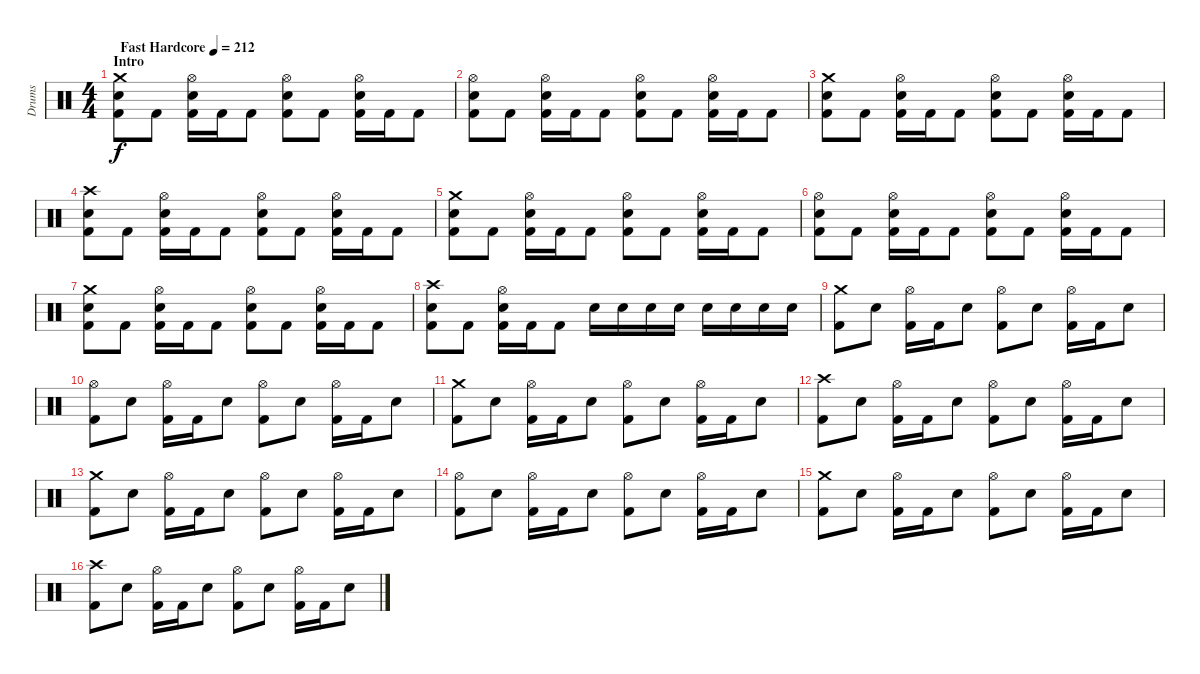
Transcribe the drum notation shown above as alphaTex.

\track ("Drums" "Drums") {instrument percussion}
\staff {score}
\articulation defaults
\ts (4 4)
\section ("" "Intro")
\tempo (212 "Fast Hardcore")
\clef neutral
\ks c
("Crash medium (hit)" "Electric Snare (hit)" "Kick (hit) 2").8{dy f} "Kick (hit) 2".8 ("Hi-Hat (open)" "Electric Snare (hit)" "Kick (hit) 2").16 "Kick (hit) 2".16 "Kick (hit) 2".8 ("Hi-Hat (open)" "Electric Snare (hit)" "Kick (hit) 2").8 "Kick (hit) 2".8 ("Hi-Hat (open)" "Electric Snare (hit)" "Kick (hit) 2").16 "Kick (hit) 2".16 "Kick (hit) 2".8 |
("Hi-Hat (open)" "Electric Snare (hit)" "Kick (hit) 2").8 "Kick (hit) 2".8 ("Hi-Hat (open)" "Electric Snare (hit)" "Kick (hit) 2").16 "Kick (hit) 2".16 "Kick (hit) 2".8 ("Hi-Hat (open)" "Electric Snare (hit)" "Kick (hit) 2").8 "Kick (hit) 2".8 ("Hi-Hat (open)" "Electric Snare (hit)" "Kick (hit) 2").16 "Kick (hit) 2".16 "Kick (hit) 2".8 |
("Crash medium (hit)" "Electric Snare (hit)" "Kick (hit) 2").8 "Kick (hit) 2".8 ("Hi-Hat (open)" "Electric Snare (hit)" "Kick (hit) 2").16 "Kick (hit) 2".16 "Kick (hit) 2".8 ("Hi-Hat (open)" "Electric Snare (hit)" "Kick (hit) 2").8 "Kick (hit) 2".8 ("Hi-Hat (open)" "Electric Snare (hit)" "Kick (hit) 2").16 "Kick (hit) 2".16 "Kick (hit) 2".8 |
("Crash high (hit)" "Electric Snare (hit)" "Kick (hit) 2").8 "Kick (hit) 2".8 ("Hi-Hat (open)" "Electric Snare (hit)" "Kick (hit) 2").16 "Kick (hit) 2".16 "Kick (hit) 2".8 ("Hi-Hat (open)" "Electric Snare (hit)" "Kick (hit) 2").8 "Kick (hit) 2".8 ("Hi-Hat (open)" "Electric Snare (hit)" "Kick (hit) 2").16 "Kick (hit) 2".16 "Kick (hit) 2".8 |
("Crash medium (hit)" "Electric Snare (hit)" "Kick (hit) 2").8 "Kick (hit) 2".8 ("Hi-Hat (open)" "Electric Snare (hit)" "Kick (hit) 2").16 "Kick (hit) 2".16 "Kick (hit) 2".8 ("Hi-Hat (open)" "Electric Snare (hit)" "Kick (hit) 2").8 "Kick (hit) 2".8 ("Hi-Hat (open)" "Electric Snare (hit)" "Kick (hit) 2").16 "Kick (hit) 2".16 "Kick (hit) 2".8 |
("Hi-Hat (open)" "Electric Snare (hit)" "Kick (hit) 2").8 "Kick (hit) 2".8 ("Hi-Hat (open)" "Electric Snare (hit)" "Kick (hit) 2").16 "Kick (hit) 2".16 "Kick (hit) 2".8 ("Hi-Hat (open)" "Electric Snare (hit)" "Kick (hit) 2").8 "Kick (hit) 2".8 ("Hi-Hat (open)" "Electric Snare (hit)" "Kick (hit) 2").16 "Kick (hit) 2".16 "Kick (hit) 2".8 |
("Crash medium (hit)" "Electric Snare (hit)" "Kick (hit) 2").8 "Kick (hit) 2".8 ("Hi-Hat (open)" "Electric Snare (hit)" "Kick (hit) 2").16 "Kick (hit) 2".16 "Kick (hit) 2".8 ("Hi-Hat (open)" "Electric Snare (hit)" "Kick (hit) 2").8 "Kick (hit) 2".8 ("Hi-Hat (open)" "Electric Snare (hit)" "Kick (hit) 2").16 "Kick (hit) 2".16 "Kick (hit) 2".8 |
("Crash high (hit)" "Electric Snare (hit)" "Kick (hit) 2").8 "Kick (hit) 2".8 ("Hi-Hat (open)" "Electric Snare (hit)" "Kick (hit) 2").16 "Kick (hit) 2".16 "Kick (hit) 2".8 "Electric Snare (hit)".16 "Electric Snare (hit)".16 "Electric Snare (hit)".16 "Electric Snare (hit)".16 "Electric Snare (hit)".16 "Electric Snare (hit)".16 "Electric Snare (hit)".16 "Electric Snare (hit)".16 |
("Crash medium (hit)" "Kick (hit) 2").8 "Electric Snare (hit)".8 ("Hi-Hat (open)" "Kick (hit) 2").16 "Kick (hit) 2".16 "Electric Snare (hit)".8 ("Hi-Hat (open)" "Kick (hit) 2").8 "Electric Snare (hit)".8 ("Hi-Hat (open)" "Kick (hit) 2").16 "Kick (hit) 2".16 "Electric Snare (hit)".8 |
("Hi-Hat (open)" "Kick (hit) 2").8 "Electric Snare (hit)".8 ("Hi-Hat (open)" "Kick (hit) 2").16 "Kick (hit) 2".16 "Electric Snare (hit)".8 ("Hi-Hat (open)" "Kick (hit) 2").8 "Electric Snare (hit)".8 ("Hi-Hat (open)" "Kick (hit) 2").16 "Kick (hit) 2".16 "Electric Snare (hit)".8 |
("Crash medium (hit)" "Kick (hit) 2").8 "Electric Snare (hit)".8 ("Hi-Hat (open)" "Kick (hit) 2").16 "Kick (hit) 2".16 "Electric Snare (hit)".8 ("Hi-Hat (open)" "Kick (hit) 2").8 "Electric Snare (hit)".8 ("Hi-Hat (open)" "Kick (hit) 2").16 "Kick (hit) 2".16 "Electric Snare (hit)".8 |
("Crash high (hit)" "Kick (hit) 2").8 "Electric Snare (hit)".8 ("Hi-Hat (open)" "Kick (hit) 2").16 "Kick (hit) 2".16 "Electric Snare (hit)".8 ("Hi-Hat (open)" "Kick (hit) 2").8 "Electric Snare (hit)".8 ("Hi-Hat (open)" "Kick (hit) 2").16 "Kick (hit) 2".16 "Electric Snare (hit)".8 |
("Crash medium (hit)" "Kick (hit) 2").8 "Electric Snare (hit)".8 ("Hi-Hat (open)" "Kick (hit) 2").16 "Kick (hit) 2".16 "Electric Snare (hit)".8 ("Hi-Hat (open)" "Kick (hit) 2").8 "Electric Snare (hit)".8 ("Hi-Hat (open)" "Kick (hit) 2").16 "Kick (hit) 2".16 "Electric Snare (hit)".8 |
("Hi-Hat (open)" "Kick (hit) 2").8 "Electric Snare (hit)".8 ("Hi-Hat (open)" "Kick (hit) 2").16 "Kick (hit) 2".16 "Electric Snare (hit)".8 ("Hi-Hat (open)" "Kick (hit) 2").8 "Electric Snare (hit)".8 ("Hi-Hat (open)" "Kick (hit) 2").16 "Kick (hit) 2".16 "Electric Snare (hit)".8 |
("Crash medium (hit)" "Kick (hit) 2").8 "Electric Snare (hit)".8 ("Hi-Hat (open)" "Kick (hit) 2").16 "Kick (hit) 2".16 "Electric Snare (hit)".8 ("Hi-Hat (open)" "Kick (hit) 2").8 "Electric Snare (hit)".8 ("Hi-Hat (open)" "Kick (hit) 2").16 "Kick (hit) 2".16 "Electric Snare (hit)".8 |
("Crash high (hit)" "Kick (hit) 2").8 "Electric Snare (hit)".8 ("Hi-Hat (open)" "Kick (hit) 2").16 "Kick (hit) 2".16 "Electric Snare (hit)".8 ("Hi-Hat (open)" "Kick (hit) 2").8 "Electric Snare (hit)".8 ("Hi-Hat (open)" "Kick (hit) 2").16 "Kick (hit) 2".16 "Electric Snare (hit)".8
